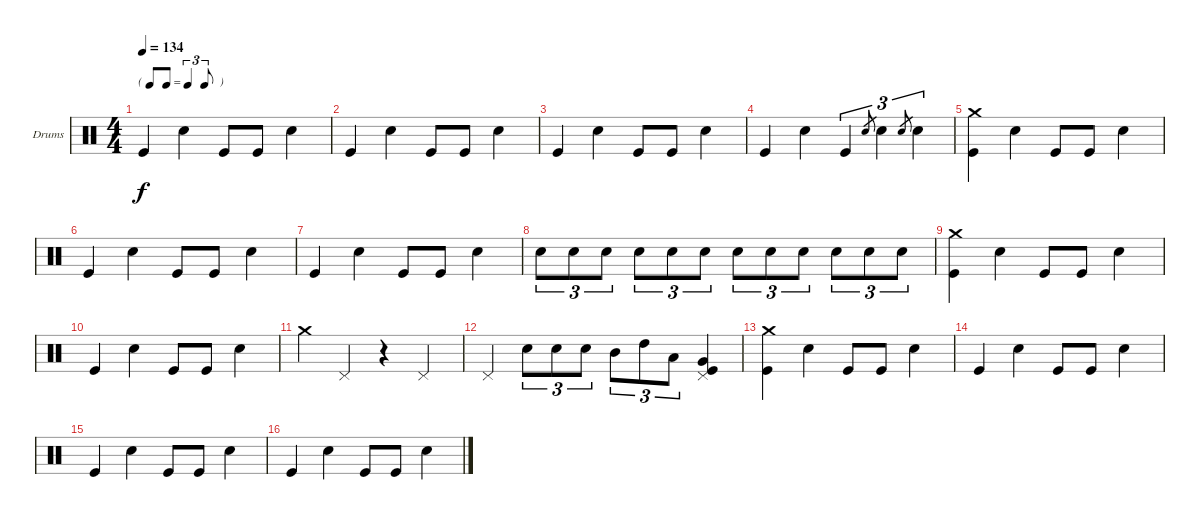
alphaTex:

\bracketExtendMode groupsimilarinstruments
\firstSystemTrackNameOrientation horizontal
\otherSystemsTrackNameOrientation horizontal
\track ("Drumkit" "Drums") {instrument percussion}
\staff {score}
\articulation defaults
\ts (4 4)
\tf triplet8th
\tempo 134
\clef neutral
\ks c "Kick (hit)".4{dy f} "Snare (hit) 2".4 "Kick (hit)".8 "Kick (hit)".8 "Snare (hit) 2".4
|
"Kick (hit)".4 "Snare (hit) 2".4 "Kick (hit)".8 "Kick (hit)".8 "Snare (hit) 2".4 |
"Kick (hit)".4 "Snare (hit) 2".4 "Kick (hit)".8 "Kick (hit)".8 "Snare (hit) 2".4 |
"Kick (hit)".4 "Snare (hit) 2".4 "Kick (hit)".4{tu (3 2)} "Snare (hit) 2".8{tu (3 2) gr} "Snare (hit) 2".4{tu (3 2)} "Snare (hit) 2".8{tu (3 2) gr} "Snare (hit) 2".4{tu (3 2)} |
("Kick (hit)" "Crash medium (hit)").4 "Snare (hit) 2".4 "Kick (hit)".8 "Kick (hit)".8 "Snare (hit) 2".4 |
"Kick (hit)".4 "Snare (hit) 2".4 "Kick (hit)".8 "Kick (hit)".8 "Snare (hit) 2".4 |
"Kick (hit)".4 "Snare (hit) 2".4 "Kick (hit)".8 "Kick (hit)".8 "Snare (hit) 2".4 |
"Snare (hit) 2".8{tu (3 2)} "Snare (hit) 2".8{tu (3 2)} "Snare (hit) 2".8{tu (3 2)} "Snare (hit) 2".8{tu (3 2)} "Snare (hit) 2".8{tu (3 2)} "Snare (hit) 2".8{tu (3 2)} "Snare (hit) 2".8{tu (3 2)} "Snare (hit) 2".8{tu (3 2)} "Snare (hit) 2".8{tu (3 2)} "Snare (hit) 2".8{tu (3 2)} "Snare (hit) 2".8{tu (3 2)} "Snare (hit) 2".8{tu (3 2)} |
("Kick (hit)" "Crash medium (hit)").4 "Snare (hit) 2".4 "Kick (hit)".8 "Kick (hit)".8 "Snare (hit) 2".4 |
"Kick (hit)".4 "Snare (hit) 2".4 "Kick (hit)".8 "Kick (hit)".8 "Snare (hit) 2".4 |
"Crash medium (hit)".4 "Pedal Hi-Hat (hit)".4 r.4 "Pedal Hi-Hat (hit)".4 |
"Pedal Hi-Hat (hit)".4 "Snare (hit) 2".8{tu (3 2)} "Snare (hit) 2".8{tu (3 2)} "Snare (hit) 2".8{tu (3 2)} "Mid Tom (hit)".8{tu (3 2)} "High Tom (hit)".8{tu (3 2)} "Low Tom (hit)".8{tu (3 2)} ("Kick (hit)" "Very Low Tom (hit)" "Pedal Hi-Hat (hit)").4 |
("Kick (hit)" "Crash medium (hit)").4 "Snare (hit) 2".4 "Kick (hit)".8 "Kick (hit)".8 "Snare (hit) 2".4 |
"Kick (hit)".4 "Snare (hit) 2".4 "Kick (hit)".8 "Kick (hit)".8 "Snare (hit) 2".4 |
"Kick (hit)".4 "Snare (hit) 2".4 "Kick (hit)".8 "Kick (hit)".8 "Snare (hit) 2".4 |
"Kick (hit)".4 "Snare (hit) 2".4 "Kick (hit)".8 "Kick (hit)".8 "Snare (hit) 2".4
